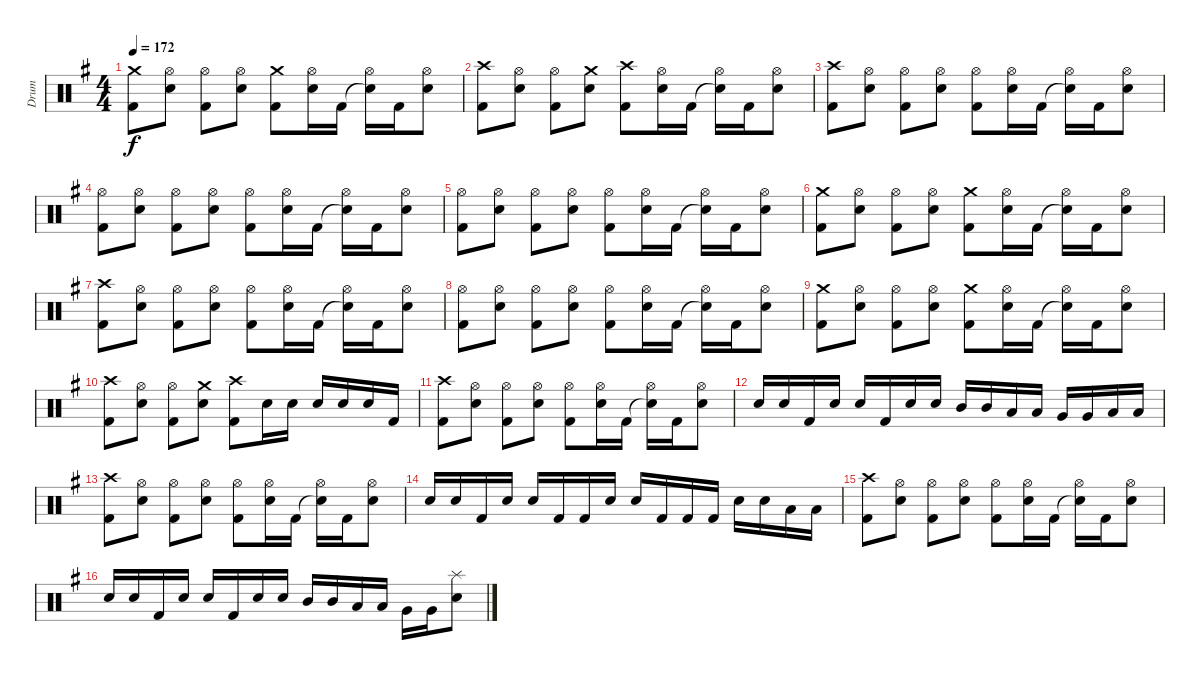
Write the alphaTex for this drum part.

\track ("Drum" "Drum") {instrument percussion}
\staff {score}
\articulation defaults
\ts (4 4)
\tempo 172
\clef neutral
\ks eminor
("Kick (hit) 2" "Crash medium (hit)").8{dy f} ("Electric Snare (hit)" "Hi-Hat (open)").8 ("Kick (hit) 2" "Hi-Hat (open)").8 ("Electric Snare (hit)" "Hi-Hat (open)").8 ("Kick (hit) 2" "Crash medium (hit)").8 ("Electric Snare (hit)" "Hi-Hat (open)").16 "Kick (hit) 2".16 ("Snare (hit)"{t} "Hi-Hat (open)").16 "Kick (hit) 2".16 ("Electric Snare (hit)" "Hi-Hat (open)").8 |
("Kick (hit) 2" "Crash high (hit)").8 ("Electric Snare (hit)" "Hi-Hat (open)").8 ("Kick (hit) 2" "Hi-Hat (open)").8 ("Electric Snare (hit)" "Crash medium (hit)").8 ("Kick (hit) 2" "Crash high (hit)").8 ("Electric Snare (hit)" "Hi-Hat (open)").16 "Kick (hit) 2".16 ("Snare (hit)"{t} "Hi-Hat (open)").16 "Kick (hit) 2".16 ("Electric Snare (hit)" "Hi-Hat (open)").8 |
("Kick (hit) 2" "Crash high (hit)").8 ("Electric Snare (hit)" "Hi-Hat (open)").8 ("Kick (hit) 2" "Hi-Hat (open)").8 ("Electric Snare (hit)" "Hi-Hat (open)").8 ("Kick (hit) 2" "Hi-Hat (open)").8 ("Electric Snare (hit)" "Hi-Hat (open)").16 "Kick (hit) 2".16 ("Snare (hit)"{t} "Hi-Hat (open)").16 "Kick (hit) 2".16 ("Electric Snare (hit)" "Hi-Hat (open)").8 |
("Kick (hit) 2" "Hi-Hat (open)").8 ("Electric Snare (hit)" "Hi-Hat (open)").8 ("Kick (hit) 2" "Hi-Hat (open)").8 ("Electric Snare (hit)" "Hi-Hat (open)").8 ("Kick (hit) 2" "Hi-Hat (open)").8 ("Electric Snare (hit)" "Hi-Hat (open)").16 "Kick (hit) 2".16 ("Snare (hit)"{t} "Hi-Hat (open)").16 "Kick (hit) 2".16 ("Electric Snare (hit)" "Hi-Hat (open)").8 |
("Kick (hit) 2" "Hi-Hat (open)").8 ("Electric Snare (hit)" "Hi-Hat (open)").8 ("Kick (hit) 2" "Hi-Hat (open)").8 ("Electric Snare (hit)" "Hi-Hat (open)").8 ("Kick (hit) 2" "Hi-Hat (open)").8 ("Electric Snare (hit)" "Hi-Hat (open)").16 "Kick (hit) 2".16 ("Snare (hit)"{t} "Hi-Hat (open)").16 "Kick (hit) 2".16 ("Electric Snare (hit)" "Hi-Hat (open)").8 |
("Kick (hit) 2" "Crash medium (hit)").8 ("Electric Snare (hit)" "Hi-Hat (open)").8 ("Kick (hit) 2" "Hi-Hat (open)").8 ("Electric Snare (hit)" "Hi-Hat (open)").8 ("Kick (hit) 2" "Crash medium (hit)").8 ("Electric Snare (hit)" "Hi-Hat (open)").16 "Kick (hit) 2".16 ("Snare (hit)"{t} "Hi-Hat (open)").16 "Kick (hit) 2".16 ("Electric Snare (hit)" "Hi-Hat (open)").8 |
("Kick (hit) 2" "Crash high (hit)").8 ("Electric Snare (hit)" "Hi-Hat (open)").8 ("Kick (hit) 2" "Hi-Hat (open)").8 ("Electric Snare (hit)" "Hi-Hat (open)").8 ("Kick (hit) 2" "Hi-Hat (open)").8 ("Electric Snare (hit)" "Hi-Hat (open)").16 "Kick (hit) 2".16 ("Snare (hit)"{t} "Hi-Hat (open)").16 "Kick (hit) 2".16 ("Electric Snare (hit)" "Hi-Hat (open)").8 |
("Kick (hit) 2" "Hi-Hat (open)").8 ("Electric Snare (hit)" "Hi-Hat (open)").8 ("Kick (hit) 2" "Hi-Hat (open)").8 ("Electric Snare (hit)" "Hi-Hat (open)").8 ("Kick (hit) 2" "Hi-Hat (open)").8 ("Electric Snare (hit)" "Hi-Hat (open)").16 "Kick (hit) 2".16 ("Snare (hit)"{t} "Hi-Hat (open)").16 "Kick (hit) 2".16 ("Electric Snare (hit)" "Hi-Hat (open)").8 |
("Kick (hit) 2" "Crash medium (hit)").8 ("Electric Snare (hit)" "Hi-Hat (open)").8 ("Kick (hit) 2" "Hi-Hat (open)").8 ("Electric Snare (hit)" "Hi-Hat (open)").8 ("Kick (hit) 2" "Crash medium (hit)").8 ("Electric Snare (hit)" "Hi-Hat (open)").16 "Kick (hit) 2".16 ("Snare (hit)"{t} "Hi-Hat (open)").16 "Kick (hit) 2".16 ("Electric Snare (hit)" "Hi-Hat (open)").8 |
("Kick (hit) 2" "Crash high (hit)").8 ("Electric Snare (hit)" "Hi-Hat (open)").8 ("Kick (hit) 2" "Hi-Hat (open)").8 ("Electric Snare (hit)" "Crash medium (hit)").8 ("Kick (hit) 2" "Crash high (hit)").8 "Electric Snare (hit)".16 "Electric Snare (hit)".16 "Electric Snare (hit)".16 "Electric Snare (hit)".16 "Electric Snare (hit)".16 "Kick (hit) 2".16 |
("Kick (hit) 2" "Crash high (hit)").8 ("Electric Snare (hit)" "Hi-Hat (open)").8 ("Kick (hit) 2" "Hi-Hat (open)").8 ("Electric Snare (hit)" "Hi-Hat (open)").8 ("Kick (hit) 2" "Hi-Hat (open)").8 ("Electric Snare (hit)" "Hi-Hat (open)").16 "Kick (hit) 2".16 ("Snare (hit)"{t} "Hi-Hat (open)").16 "Kick (hit) 2".16 ("Electric Snare (hit)" "Hi-Hat (open)").8 |
"Electric Snare (hit)".16 "Electric Snare (hit)".16 "Kick (hit) 2".16 "Electric Snare (hit)".16 "Electric Snare (hit)".16 "Kick (hit) 2".16 "Electric Snare (hit)".16 "Electric Snare (hit)".16 "Mid Tom (hit)".16 "Mid Tom (hit)".16 "Low Tom (hit)".16 "Low Tom (hit)".16 "Very Low Tom (hit)".16 "Very Low Tom (hit)".16 "Low Floor Tom (hit)".16 "Low Floor Tom (hit)".16 |
("Kick (hit) 2" "Crash high (hit)").8 ("Electric Snare (hit)" "Hi-Hat (open)").8 ("Kick (hit) 2" "Hi-Hat (open)").8 ("Electric Snare (hit)" "Hi-Hat (open)").8 ("Kick (hit) 2" "Hi-Hat (open)").8 ("Electric Snare (hit)" "Hi-Hat (open)").16 "Kick (hit) 2".16 ("Snare (hit)"{t} "Hi-Hat (open)").16 "Kick (hit) 2".16 ("Electric Snare (hit)" "Hi-Hat (open)").8 |
"Electric Snare (hit)".16 "Electric Snare (hit)".16 "Kick (hit) 2".16 "Electric Snare (hit)".16 "Electric Snare (hit)".16 "Kick (hit) 2".16 "Kick (hit) 2".16 "Electric Snare (hit)".16 "Electric Snare (hit)".16 "Kick (hit) 2".16 "Kick (hit) 2".16 "Kick (hit) 2".16 "Electric Snare (hit)".16 "Electric Snare (hit)".16 "Low Tom (hit)".16 "Low Tom (hit)".16 |
("Kick (hit) 2" "Crash high (hit)").8 ("Electric Snare (hit)" "Hi-Hat (open)").8 ("Kick (hit) 2" "Hi-Hat (open)").8 ("Electric Snare (hit)" "Hi-Hat (open)").8 ("Kick (hit) 2" "Hi-Hat (open)").8 ("Electric Snare (hit)" "Hi-Hat (open)").16 "Kick (hit) 2".16 ("Snare (hit)"{t} "Hi-Hat (open)").16 "Kick (hit) 2".16 ("Electric Snare (hit)" "Hi-Hat (open)").8 |
"Electric Snare (hit)".16 "Electric Snare (hit)".16 "Kick (hit) 2".16 "Electric Snare (hit)".16 "Electric Snare (hit)".16 "Kick (hit) 2".16 "Electric Snare (hit)".16 "Electric Snare (hit)".16 "Mid Tom (hit)".16 "Mid Tom (hit)".16 "Low Tom (hit)".16 "Low Tom (hit)".16 "Very Low Tom (hit)".16 "Very Low Tom (hit)".16 ("Electric Snare (hit)" "Splash (hit)").8
